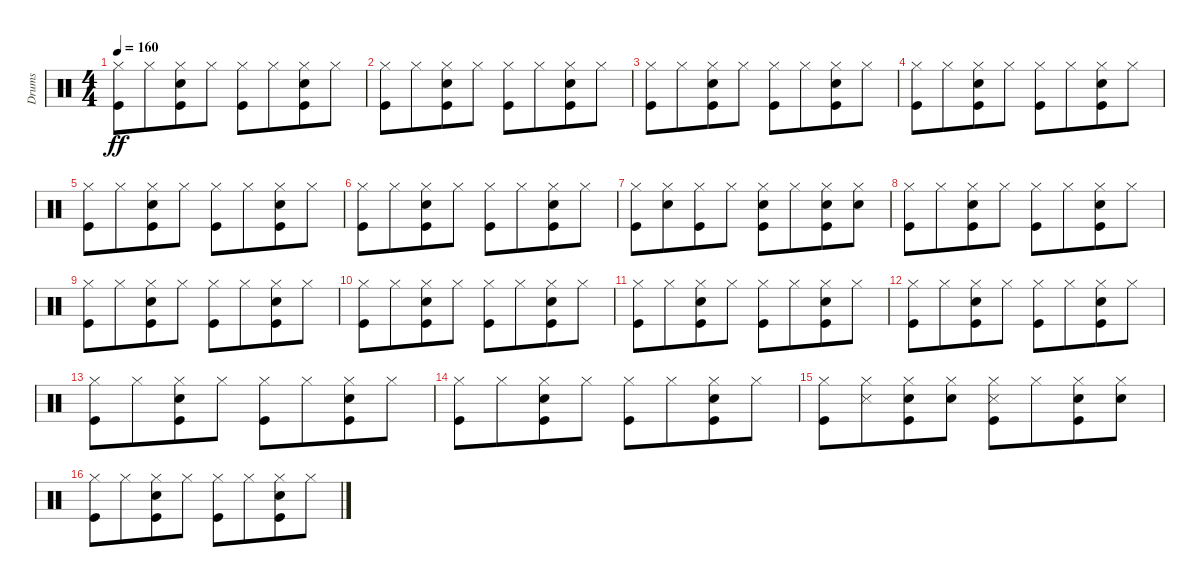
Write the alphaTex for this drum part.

\track ("Drums" "Drums") {instrument percussion}
\staff {score}
\articulation defaults
\ts (4 4)
\tempo 160
\clef neutral
\ks c
("Hi-Hat (closed)" "Kick (hit)").8{dy ff} "Hi-Hat (closed)".8{beam merge} ("Hi-Hat (closed)" "Snare (hit) 2" "Kick (hit)").8 "Hi-Hat (closed)".8 ("Hi-Hat (closed)" "Kick (hit)").8 "Hi-Hat (closed)".8{beam merge} ("Hi-Hat (closed)" "Snare (hit) 2" "Kick (hit)").8 "Hi-Hat (closed)".8 |
("Hi-Hat (closed)" "Kick (hit)").8 "Hi-Hat (closed)".8{beam merge} ("Hi-Hat (closed)" "Snare (hit) 2" "Kick (hit)").8 "Hi-Hat (closed)".8 ("Hi-Hat (closed)" "Kick (hit)").8 "Hi-Hat (closed)".8{beam merge} ("Hi-Hat (closed)" "Snare (hit) 2" "Kick (hit)").8 "Hi-Hat (closed)".8 |
("Hi-Hat (closed)" "Kick (hit)").8 "Hi-Hat (closed)".8{beam merge} ("Hi-Hat (closed)" "Snare (hit) 2" "Kick (hit)").8 "Hi-Hat (closed)".8 ("Hi-Hat (closed)" "Kick (hit)").8 "Hi-Hat (closed)".8{beam merge} ("Hi-Hat (closed)" "Snare (hit) 2" "Kick (hit)").8 "Hi-Hat (closed)".8 |
("Hi-Hat (closed)" "Kick (hit)").8 "Hi-Hat (closed)".8{beam merge} ("Hi-Hat (closed)" "Snare (hit) 2" "Kick (hit)").8 "Hi-Hat (closed)".8 ("Hi-Hat (closed)" "Kick (hit)").8 "Hi-Hat (closed)".8{beam merge} ("Hi-Hat (closed)" "Snare (hit) 2" "Kick (hit)").8 "Hi-Hat (closed)".8 |
("Hi-Hat (closed)" "Kick (hit)").8 "Hi-Hat (closed)".8{beam merge} ("Hi-Hat (closed)" "Snare (hit) 2" "Kick (hit)").8 "Hi-Hat (closed)".8 ("Hi-Hat (closed)" "Kick (hit)").8 "Hi-Hat (closed)".8{beam merge} ("Hi-Hat (closed)" "Snare (hit) 2" "Kick (hit)").8 "Hi-Hat (closed)".8 |
("Hi-Hat (closed)" "Kick (hit)").8 "Hi-Hat (closed)".8{beam merge} ("Hi-Hat (closed)" "Snare (hit) 2" "Kick (hit)").8 "Hi-Hat (closed)".8 ("Hi-Hat (closed)" "Kick (hit)").8 "Hi-Hat (closed)".8{beam merge} ("Hi-Hat (closed)" "Snare (hit) 2" "Kick (hit)").8 "Hi-Hat (closed)".8 |
("Hi-Hat (closed)" "Kick (hit)").8 ("Hi-Hat (closed)" "Snare (hit) 2").8{beam merge} ("Hi-Hat (closed)" "Kick (hit)").8 "Hi-Hat (closed)".8 ("Hi-Hat (closed)" "Snare (hit) 2" "Kick (hit)").8 "Hi-Hat (closed)".8{beam merge} ("Hi-Hat (closed)" "Snare (hit) 2" "Kick (hit)").8 ("Hi-Hat (closed)" "Snare (hit) 2").8 |
("Hi-Hat (closed)" "Kick (hit)").8 "Hi-Hat (closed)".8{beam merge} ("Hi-Hat (closed)" "Snare (hit) 2" "Kick (hit)").8 "Hi-Hat (closed)".8 ("Hi-Hat (closed)" "Kick (hit)").8 "Hi-Hat (closed)".8{beam merge} ("Hi-Hat (closed)" "Snare (hit) 2" "Kick (hit)").8 "Hi-Hat (closed)".8 |
("Hi-Hat (closed)" "Kick (hit)").8 "Hi-Hat (closed)".8{beam merge} ("Hi-Hat (closed)" "Snare (hit) 2" "Kick (hit)").8 "Hi-Hat (closed)".8 ("Hi-Hat (closed)" "Kick (hit)").8 "Hi-Hat (closed)".8{beam merge} ("Hi-Hat (closed)" "Snare (hit) 2" "Kick (hit)").8 "Hi-Hat (closed)".8 |
("Hi-Hat (closed)" "Kick (hit)").8 "Hi-Hat (closed)".8{beam merge} ("Hi-Hat (closed)" "Snare (hit) 2" "Kick (hit)").8 "Hi-Hat (closed)".8 ("Hi-Hat (closed)" "Kick (hit)").8 "Hi-Hat (closed)".8{beam merge} ("Hi-Hat (closed)" "Snare (hit) 2" "Kick (hit)").8 "Hi-Hat (closed)".8 |
("Hi-Hat (closed)" "Kick (hit)").8 "Hi-Hat (closed)".8{beam merge} ("Hi-Hat (closed)" "Snare (hit) 2" "Kick (hit)").8 "Hi-Hat (closed)".8 ("Hi-Hat (closed)" "Kick (hit)").8 "Hi-Hat (closed)".8{beam merge} ("Hi-Hat (closed)" "Snare (hit) 2" "Kick (hit)").8 "Hi-Hat (closed)".8 |
("Hi-Hat (closed)" "Kick (hit)").8 "Hi-Hat (closed)".8{beam merge} ("Hi-Hat (closed)" "Snare (hit) 2" "Kick (hit)").8 "Hi-Hat (closed)".8 ("Hi-Hat (closed)" "Kick (hit)").8 "Hi-Hat (closed)".8{beam merge} ("Hi-Hat (closed)" "Snare (hit) 2" "Kick (hit)").8 "Hi-Hat (closed)".8 |
("Hi-Hat (closed)" "Kick (hit)").8 "Hi-Hat (closed)".8{beam merge} ("Hi-Hat (closed)" "Snare (hit) 2" "Kick (hit)").8 "Hi-Hat (closed)".8 ("Hi-Hat (closed)" "Kick (hit)").8 "Hi-Hat (closed)".8{beam merge} ("Hi-Hat (closed)" "Snare (hit) 2" "Kick (hit)").8 "Hi-Hat (closed)".8 |
("Hi-Hat (closed)" "Kick (hit)").8 "Hi-Hat (closed)".8{beam merge} ("Hi-Hat (closed)" "Snare (hit) 2" "Kick (hit)").8 "Hi-Hat (closed)".8 ("Hi-Hat (closed)" "Kick (hit)").8 "Hi-Hat (closed)".8{beam merge} ("Hi-Hat (closed)" "Snare (hit) 2" "Kick (hit)").8 "Hi-Hat (closed)".8 |
("Hi-Hat (closed)" "Kick (hit)").8 ("Hi-Hat (closed)" "Snare (side stick) 3").8{beam merge} ("Hi-Hat (closed)" "Snare (hit) 2" "Kick (hit)").8 ("Hi-Hat (closed)" "Snare (hit) 2").8 ("Hi-Hat (closed)" "Snare (side stick) 3" "Kick (hit)").8 "Hi-Hat (closed)".8{beam merge} ("Hi-Hat (closed)" "Snare (hit) 2" "Kick (hit)").8 ("Hi-Hat (closed)" "Snare (hit) 2").8 |
("Hi-Hat (closed)" "Kick (hit)").8 "Hi-Hat (closed)".8{beam merge} ("Hi-Hat (closed)" "Snare (hit) 2" "Kick (hit)").8 "Hi-Hat (closed)".8 ("Hi-Hat (closed)" "Kick (hit)").8 "Hi-Hat (closed)".8{beam merge} ("Hi-Hat (closed)" "Snare (hit) 2" "Kick (hit)").8 "Hi-Hat (closed)".8
